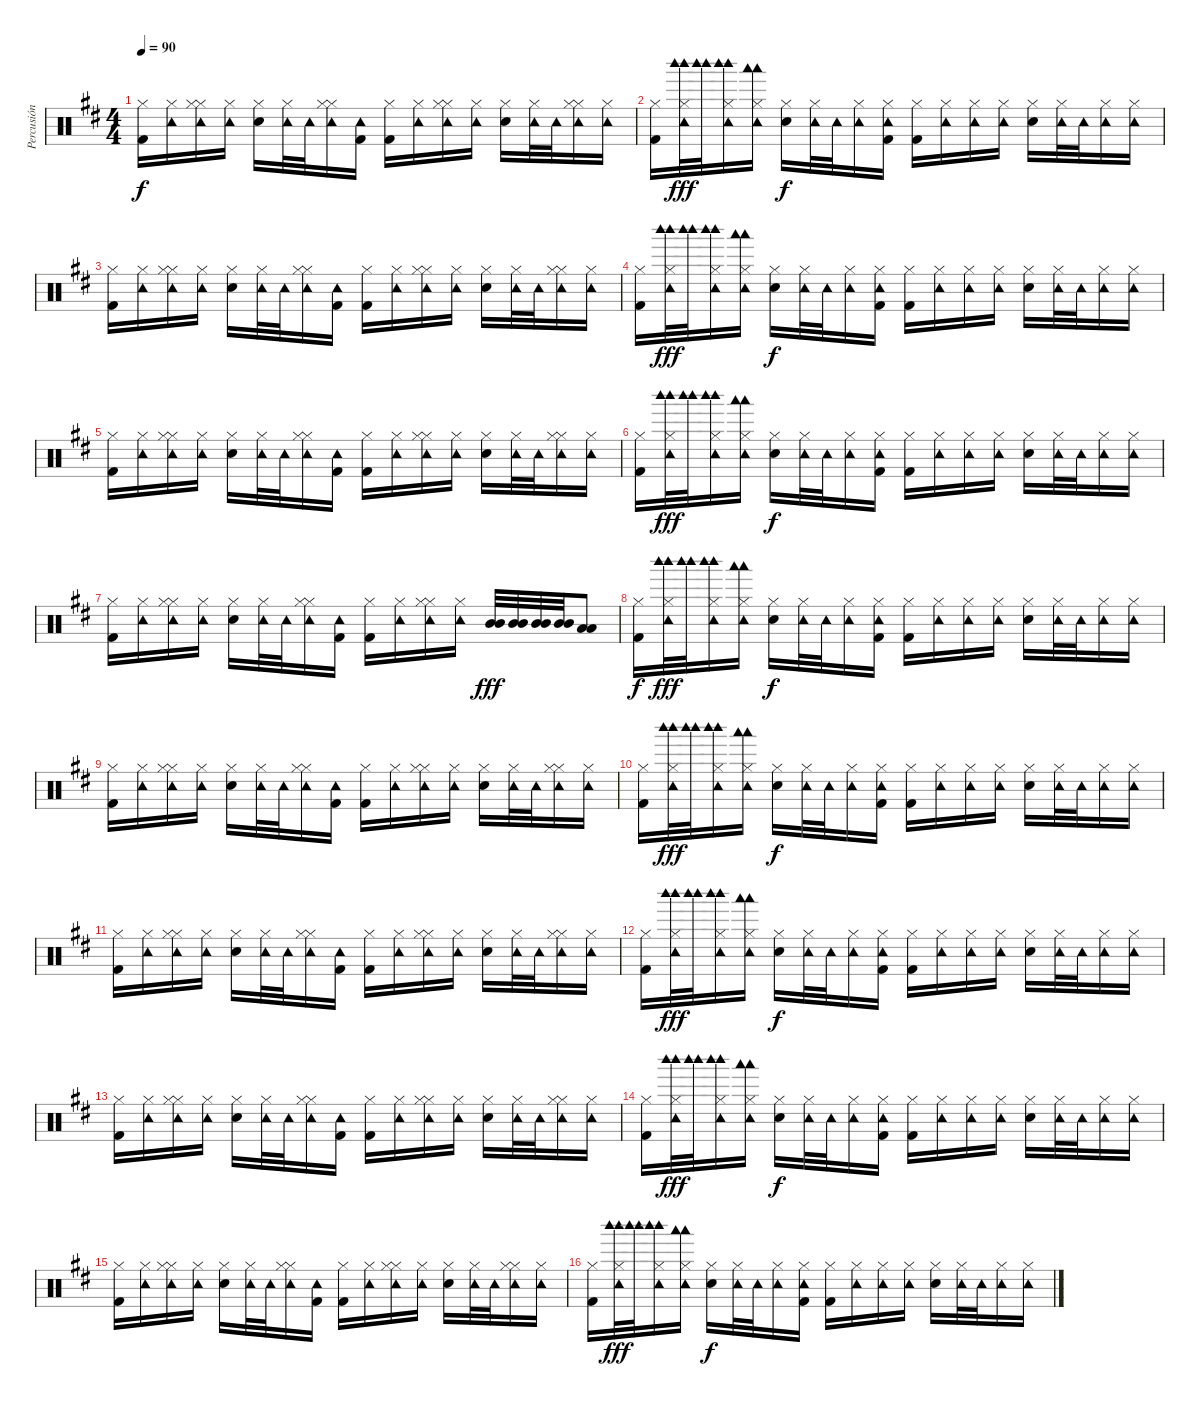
\track ("Percusión" "Percusión") {instrument percussion}
\staff
\articulation defaults
\ts (4 4)
\tempo 90
\clef neutral
\ks bminor
("Kick (hit) 2" "Hi-Hat (closed)").16{dy f} ("Tambourine (hit)" "Hi-Hat (closed)").16 ("Hi-Hat (closed)" "Tambourine (hit)" "Hi-Hat (closed)").16 ("Tambourine (hit)" "Hi-Hat (closed)").16 ("Electric Snare (hit)" "Hi-Hat (closed)").16 ("Tambourine (hit)" "Hi-Hat (closed)").32 "Tambourine (hit)".32 ("Hi-Hat (closed)" "Tambourine (hit)" "Hi-Hat (closed)").16 ("Kick (hit) 2" "Tambourine (hit)").16 ("Kick (hit) 2" "Hi-Hat (closed)").16 ("Tambourine (hit)" "Hi-Hat (closed)").16 ("Hi-Hat (closed)" "Tambourine (hit)" "Hi-Hat (closed)").16 ("Tambourine (hit)" "Hi-Hat (closed)").16 ("Electric Snare (hit)" "Hi-Hat (closed)").16 ("Tambourine (hit)" "Hi-Hat (closed)").32 "Tambourine (hit)".32 ("Hi-Hat (closed)" "Tambourine (hit)" "Hi-Hat (closed)").16 ("Tambourine (hit)" "Hi-Hat (closed)").16 |
("Kick (hit) 2" "Hi-Hat (closed)").16 ("Hi-Hat (closed)" "Tambourine (hit)" "Woodblock high (hit)" "Woodblock high (hit)").32{dy fff} ("Woodblock high (hit)" "Woodblock high (hit)").32 ("Hi-Hat (closed)" "Tambourine (hit)" "Woodblock high (hit)" "Woodblock high (hit)").16 ("Hi-Hat (closed)" "Tambourine (hit)" "Woodblock low (hit)" "Woodblock low (hit)").16 ("Electric Snare (hit)" "Hi-Hat (closed)").16{dy f} ("Hi-Hat (closed)" "Tambourine (hit)").32 "Tambourine (hit)".32 ("Hi-Hat (closed)" "Tambourine (hit)").16 ("Kick (hit) 2" "Hi-Hat (closed)" "Tambourine (hit)").16 ("Kick (hit) 2" "Hi-Hat (closed)").16 ("Hi-Hat (closed)" "Tambourine (hit)").16 ("Hi-Hat (closed)" "Tambourine (hit)").16 ("Hi-Hat (closed)" "Tambourine (hit)").16 ("Electric Snare (hit)" "Hi-Hat (closed)").16 ("Hi-Hat (closed)" "Tambourine (hit)").32 "Tambourine (hit)".32 ("Hi-Hat (closed)" "Tambourine (hit)").16 ("Hi-Hat (closed)" "Tambourine (hit)").16 |
("Kick (hit) 2" "Hi-Hat (closed)").16 ("Tambourine (hit)" "Hi-Hat (closed)").16 ("Hi-Hat (closed)" "Tambourine (hit)" "Hi-Hat (closed)").16 ("Tambourine (hit)" "Hi-Hat (closed)").16 ("Electric Snare (hit)" "Hi-Hat (closed)").16 ("Tambourine (hit)" "Hi-Hat (closed)").32 "Tambourine (hit)".32 ("Hi-Hat (closed)" "Tambourine (hit)" "Hi-Hat (closed)").16 ("Kick (hit) 2" "Tambourine (hit)").16 ("Kick (hit) 2" "Hi-Hat (closed)").16 ("Tambourine (hit)" "Hi-Hat (closed)").16 ("Hi-Hat (closed)" "Tambourine (hit)" "Hi-Hat (closed)").16 ("Tambourine (hit)" "Hi-Hat (closed)").16 ("Electric Snare (hit)" "Hi-Hat (closed)").16 ("Tambourine (hit)" "Hi-Hat (closed)").32 "Tambourine (hit)".32 ("Hi-Hat (closed)" "Tambourine (hit)" "Hi-Hat (closed)").16 ("Tambourine (hit)" "Hi-Hat (closed)").16 |
("Kick (hit) 2" "Hi-Hat (closed)").16 ("Hi-Hat (closed)" "Tambourine (hit)" "Woodblock high (hit)" "Woodblock high (hit)").32{dy fff} ("Woodblock high (hit)" "Woodblock high (hit)").32 ("Hi-Hat (closed)" "Tambourine (hit)" "Woodblock high (hit)" "Woodblock high (hit)").16 ("Hi-Hat (closed)" "Tambourine (hit)" "Woodblock low (hit)" "Woodblock low (hit)").16 ("Electric Snare (hit)" "Hi-Hat (closed)").16{dy f} ("Hi-Hat (closed)" "Tambourine (hit)").32 "Tambourine (hit)".32 ("Hi-Hat (closed)" "Tambourine (hit)").16 ("Kick (hit) 2" "Hi-Hat (closed)" "Tambourine (hit)").16 ("Kick (hit) 2" "Hi-Hat (closed)").16 ("Hi-Hat (closed)" "Tambourine (hit)").16 ("Hi-Hat (closed)" "Tambourine (hit)").16 ("Hi-Hat (closed)" "Tambourine (hit)").16 ("Electric Snare (hit)" "Hi-Hat (closed)").16 ("Hi-Hat (closed)" "Tambourine (hit)").32 "Tambourine (hit)".32 ("Hi-Hat (closed)" "Tambourine (hit)").16 ("Hi-Hat (closed)" "Tambourine (hit)").16 |
("Kick (hit) 2" "Hi-Hat (closed)").16 ("Tambourine (hit)" "Hi-Hat (closed)").16 ("Hi-Hat (closed)" "Tambourine (hit)" "Hi-Hat (closed)").16 ("Tambourine (hit)" "Hi-Hat (closed)").16 ("Electric Snare (hit)" "Hi-Hat (closed)").16 ("Tambourine (hit)" "Hi-Hat (closed)").32 "Tambourine (hit)".32 ("Hi-Hat (closed)" "Tambourine (hit)" "Hi-Hat (closed)").16 ("Kick (hit) 2" "Tambourine (hit)").16 ("Kick (hit) 2" "Hi-Hat (closed)").16 ("Tambourine (hit)" "Hi-Hat (closed)").16 ("Hi-Hat (closed)" "Tambourine (hit)" "Hi-Hat (closed)").16 ("Tambourine (hit)" "Hi-Hat (closed)").16 ("Electric Snare (hit)" "Hi-Hat (closed)").16 ("Tambourine (hit)" "Hi-Hat (closed)").32 "Tambourine (hit)".32 ("Hi-Hat (closed)" "Tambourine (hit)" "Hi-Hat (closed)").16 ("Tambourine (hit)" "Hi-Hat (closed)").16 |
("Kick (hit) 2" "Hi-Hat (closed)").16 ("Hi-Hat (closed)" "Tambourine (hit)" "Woodblock high (hit)" "Woodblock high (hit)").32{dy fff} ("Woodblock high (hit)" "Woodblock high (hit)").32 ("Hi-Hat (closed)" "Tambourine (hit)" "Woodblock high (hit)" "Woodblock high (hit)").16 ("Hi-Hat (closed)" "Tambourine (hit)" "Woodblock low (hit)" "Woodblock low (hit)").16 ("Electric Snare (hit)" "Hi-Hat (closed)").16{dy f} ("Hi-Hat (closed)" "Tambourine (hit)").32 "Tambourine (hit)".32 ("Hi-Hat (closed)" "Tambourine (hit)").16 ("Kick (hit) 2" "Hi-Hat (closed)" "Tambourine (hit)").16 ("Kick (hit) 2" "Hi-Hat (closed)").16 ("Hi-Hat (closed)" "Tambourine (hit)").16 ("Hi-Hat (closed)" "Tambourine (hit)").16 ("Hi-Hat (closed)" "Tambourine (hit)").16 ("Electric Snare (hit)" "Hi-Hat (closed)").16 ("Hi-Hat (closed)" "Tambourine (hit)").32 "Tambourine (hit)".32 ("Hi-Hat (closed)" "Tambourine (hit)").16 ("Hi-Hat (closed)" "Tambourine (hit)").16 |
("Kick (hit) 2" "Hi-Hat (closed)").16 ("Tambourine (hit)" "Hi-Hat (closed)").16 ("Hi-Hat (closed)" "Tambourine (hit)" "Hi-Hat (closed)").16 ("Tambourine (hit)" "Hi-Hat (closed)").16 ("Electric Snare (hit)" "Hi-Hat (closed)").16 ("Tambourine (hit)" "Hi-Hat (closed)").32 "Tambourine (hit)".32 ("Hi-Hat (closed)" "Tambourine (hit)" "Hi-Hat (closed)").16 ("Kick (hit) 2" "Tambourine (hit)").16 ("Kick (hit) 2" "Hi-Hat (closed)").16 ("Tambourine (hit)" "Hi-Hat (closed)").16 ("Hi-Hat (closed)" "Tambourine (hit)" "Hi-Hat (closed)").16 ("Tambourine (hit)" "Hi-Hat (closed)").16 ("Mid Tom (hit)" "Mid Tom (hit)").32{dy fff} ("Mid Tom (hit)" "Mid Tom (hit)").32 ("Mid Tom (hit)" "Mid Tom (hit)").32 ("Mid Tom (hit)" "Mid Tom (hit)").32 ("Low Tom (hit)" "Low Tom (hit)").8 |
("Kick (hit) 2" "Hi-Hat (closed)").16{dy f} ("Hi-Hat (closed)" "Tambourine (hit)" "Woodblock high (hit)" "Woodblock high (hit)").32{dy fff} ("Woodblock high (hit)" "Woodblock high (hit)").32 ("Hi-Hat (closed)" "Tambourine (hit)" "Woodblock high (hit)" "Woodblock high (hit)").16 ("Hi-Hat (closed)" "Tambourine (hit)" "Woodblock low (hit)" "Woodblock low (hit)").16 ("Electric Snare (hit)" "Hi-Hat (closed)").16{dy f} ("Hi-Hat (closed)" "Tambourine (hit)").32 "Tambourine (hit)".32 ("Hi-Hat (closed)" "Tambourine (hit)").16 ("Kick (hit) 2" "Hi-Hat (closed)" "Tambourine (hit)").16 ("Kick (hit) 2" "Hi-Hat (closed)").16 ("Hi-Hat (closed)" "Tambourine (hit)").16 ("Hi-Hat (closed)" "Tambourine (hit)").16 ("Hi-Hat (closed)" "Tambourine (hit)").16 ("Electric Snare (hit)" "Hi-Hat (closed)").16 ("Hi-Hat (closed)" "Tambourine (hit)").32 "Tambourine (hit)".32 ("Hi-Hat (closed)" "Tambourine (hit)").16 ("Hi-Hat (closed)" "Tambourine (hit)").16 |
("Kick (hit) 2" "Hi-Hat (closed)").16 ("Tambourine (hit)" "Hi-Hat (closed)").16 ("Hi-Hat (closed)" "Tambourine (hit)" "Hi-Hat (closed)").16 ("Tambourine (hit)" "Hi-Hat (closed)").16 ("Electric Snare (hit)" "Hi-Hat (closed)").16 ("Tambourine (hit)" "Hi-Hat (closed)").32 "Tambourine (hit)".32 ("Hi-Hat (closed)" "Tambourine (hit)" "Hi-Hat (closed)").16 ("Kick (hit) 2" "Tambourine (hit)").16 ("Kick (hit) 2" "Hi-Hat (closed)").16 ("Tambourine (hit)" "Hi-Hat (closed)").16 ("Hi-Hat (closed)" "Tambourine (hit)" "Hi-Hat (closed)").16 ("Tambourine (hit)" "Hi-Hat (closed)").16 ("Electric Snare (hit)" "Hi-Hat (closed)").16 ("Tambourine (hit)" "Hi-Hat (closed)").32 "Tambourine (hit)".32 ("Hi-Hat (closed)" "Tambourine (hit)" "Hi-Hat (closed)").16 ("Tambourine (hit)" "Hi-Hat (closed)").16 |
("Kick (hit) 2" "Hi-Hat (closed)").16 ("Hi-Hat (closed)" "Tambourine (hit)" "Woodblock high (hit)" "Woodblock high (hit)").32{dy fff} ("Woodblock high (hit)" "Woodblock high (hit)").32 ("Hi-Hat (closed)" "Tambourine (hit)" "Woodblock high (hit)" "Woodblock high (hit)").16 ("Hi-Hat (closed)" "Tambourine (hit)" "Woodblock low (hit)" "Woodblock low (hit)").16 ("Electric Snare (hit)" "Hi-Hat (closed)").16{dy f} ("Hi-Hat (closed)" "Tambourine (hit)").32 "Tambourine (hit)".32 ("Hi-Hat (closed)" "Tambourine (hit)").16 ("Kick (hit) 2" "Hi-Hat (closed)" "Tambourine (hit)").16 ("Kick (hit) 2" "Hi-Hat (closed)").16 ("Hi-Hat (closed)" "Tambourine (hit)").16 ("Hi-Hat (closed)" "Tambourine (hit)").16 ("Hi-Hat (closed)" "Tambourine (hit)").16 ("Electric Snare (hit)" "Hi-Hat (closed)").16 ("Hi-Hat (closed)" "Tambourine (hit)").32 "Tambourine (hit)".32 ("Hi-Hat (closed)" "Tambourine (hit)").16 ("Hi-Hat (closed)" "Tambourine (hit)").16 |
("Kick (hit) 2" "Hi-Hat (closed)").16 ("Tambourine (hit)" "Hi-Hat (closed)").16 ("Hi-Hat (closed)" "Tambourine (hit)" "Hi-Hat (closed)").16 ("Tambourine (hit)" "Hi-Hat (closed)").16 ("Electric Snare (hit)" "Hi-Hat (closed)").16 ("Tambourine (hit)" "Hi-Hat (closed)").32 "Tambourine (hit)".32 ("Hi-Hat (closed)" "Tambourine (hit)" "Hi-Hat (closed)").16 ("Kick (hit) 2" "Tambourine (hit)").16 ("Kick (hit) 2" "Hi-Hat (closed)").16 ("Tambourine (hit)" "Hi-Hat (closed)").16 ("Hi-Hat (closed)" "Tambourine (hit)" "Hi-Hat (closed)").16 ("Tambourine (hit)" "Hi-Hat (closed)").16 ("Electric Snare (hit)" "Hi-Hat (closed)").16 ("Tambourine (hit)" "Hi-Hat (closed)").32 "Tambourine (hit)".32 ("Hi-Hat (closed)" "Tambourine (hit)" "Hi-Hat (closed)").16 ("Tambourine (hit)" "Hi-Hat (closed)").16 |
("Kick (hit) 2" "Hi-Hat (closed)").16 ("Hi-Hat (closed)" "Tambourine (hit)" "Woodblock high (hit)" "Woodblock high (hit)").32{dy fff} ("Woodblock high (hit)" "Woodblock high (hit)").32 ("Hi-Hat (closed)" "Tambourine (hit)" "Woodblock high (hit)" "Woodblock high (hit)").16 ("Hi-Hat (closed)" "Tambourine (hit)" "Woodblock low (hit)" "Woodblock low (hit)").16 ("Electric Snare (hit)" "Hi-Hat (closed)").16{dy f} ("Hi-Hat (closed)" "Tambourine (hit)").32 "Tambourine (hit)".32 ("Hi-Hat (closed)" "Tambourine (hit)").16 ("Kick (hit) 2" "Hi-Hat (closed)" "Tambourine (hit)").16 ("Kick (hit) 2" "Hi-Hat (closed)").16 ("Hi-Hat (closed)" "Tambourine (hit)").16 ("Hi-Hat (closed)" "Tambourine (hit)").16 ("Hi-Hat (closed)" "Tambourine (hit)").16 ("Electric Snare (hit)" "Hi-Hat (closed)").16 ("Hi-Hat (closed)" "Tambourine (hit)").32 "Tambourine (hit)".32 ("Hi-Hat (closed)" "Tambourine (hit)").16 ("Hi-Hat (closed)" "Tambourine (hit)").16 |
("Kick (hit) 2" "Hi-Hat (closed)").16 ("Tambourine (hit)" "Hi-Hat (closed)").16 ("Hi-Hat (closed)" "Tambourine (hit)" "Hi-Hat (closed)").16 ("Tambourine (hit)" "Hi-Hat (closed)").16 ("Electric Snare (hit)" "Hi-Hat (closed)").16 ("Tambourine (hit)" "Hi-Hat (closed)").32 "Tambourine (hit)".32 ("Hi-Hat (closed)" "Tambourine (hit)" "Hi-Hat (closed)").16 ("Kick (hit) 2" "Tambourine (hit)").16 ("Kick (hit) 2" "Hi-Hat (closed)").16 ("Tambourine (hit)" "Hi-Hat (closed)").16 ("Hi-Hat (closed)" "Tambourine (hit)" "Hi-Hat (closed)").16 ("Tambourine (hit)" "Hi-Hat (closed)").16 ("Electric Snare (hit)" "Hi-Hat (closed)").16 ("Tambourine (hit)" "Hi-Hat (closed)").32 "Tambourine (hit)".32 ("Hi-Hat (closed)" "Tambourine (hit)" "Hi-Hat (closed)").16 ("Tambourine (hit)" "Hi-Hat (closed)").16 |
("Kick (hit) 2" "Hi-Hat (closed)").16 ("Hi-Hat (closed)" "Tambourine (hit)" "Woodblock high (hit)" "Woodblock high (hit)").32{dy fff} ("Woodblock high (hit)" "Woodblock high (hit)").32 ("Hi-Hat (closed)" "Tambourine (hit)" "Woodblock high (hit)" "Woodblock high (hit)").16 ("Hi-Hat (closed)" "Tambourine (hit)" "Woodblock low (hit)" "Woodblock low (hit)").16 ("Electric Snare (hit)" "Hi-Hat (closed)").16{dy f} ("Hi-Hat (closed)" "Tambourine (hit)").32 "Tambourine (hit)".32 ("Hi-Hat (closed)" "Tambourine (hit)").16 ("Kick (hit) 2" "Hi-Hat (closed)" "Tambourine (hit)").16 ("Kick (hit) 2" "Hi-Hat (closed)").16 ("Hi-Hat (closed)" "Tambourine (hit)").16 ("Hi-Hat (closed)" "Tambourine (hit)").16 ("Hi-Hat (closed)" "Tambourine (hit)").16 ("Electric Snare (hit)" "Hi-Hat (closed)").16 ("Hi-Hat (closed)" "Tambourine (hit)").32 "Tambourine (hit)".32 ("Hi-Hat (closed)" "Tambourine (hit)").16 ("Hi-Hat (closed)" "Tambourine (hit)").16 |
("Kick (hit) 2" "Hi-Hat (closed)").16 ("Tambourine (hit)" "Hi-Hat (closed)").16 ("Hi-Hat (closed)" "Tambourine (hit)" "Hi-Hat (closed)").16 ("Tambourine (hit)" "Hi-Hat (closed)").16 ("Electric Snare (hit)" "Hi-Hat (closed)").16 ("Tambourine (hit)" "Hi-Hat (closed)").32 "Tambourine (hit)".32 ("Hi-Hat (closed)" "Tambourine (hit)" "Hi-Hat (closed)").16 ("Kick (hit) 2" "Tambourine (hit)").16 ("Kick (hit) 2" "Hi-Hat (closed)").16 ("Tambourine (hit)" "Hi-Hat (closed)").16 ("Hi-Hat (closed)" "Tambourine (hit)" "Hi-Hat (closed)").16 ("Tambourine (hit)" "Hi-Hat (closed)").16 ("Electric Snare (hit)" "Hi-Hat (closed)").16 ("Tambourine (hit)" "Hi-Hat (closed)").32 "Tambourine (hit)".32 ("Hi-Hat (closed)" "Tambourine (hit)" "Hi-Hat (closed)").16 ("Tambourine (hit)" "Hi-Hat (closed)").16 |
("Kick (hit) 2" "Hi-Hat (closed)").16 ("Hi-Hat (closed)" "Tambourine (hit)" "Woodblock high (hit)" "Woodblock high (hit)").32{dy fff} ("Woodblock high (hit)" "Woodblock high (hit)").32 ("Hi-Hat (closed)" "Tambourine (hit)" "Woodblock high (hit)" "Woodblock high (hit)").16 ("Hi-Hat (closed)" "Tambourine (hit)" "Woodblock low (hit)" "Woodblock low (hit)").16 ("Electric Snare (hit)" "Hi-Hat (closed)").16{dy f} ("Hi-Hat (closed)" "Tambourine (hit)").32 "Tambourine (hit)".32 ("Hi-Hat (closed)" "Tambourine (hit)").16 ("Kick (hit) 2" "Hi-Hat (closed)" "Tambourine (hit)").16 ("Kick (hit) 2" "Hi-Hat (closed)").16 ("Hi-Hat (closed)" "Tambourine (hit)").16 ("Hi-Hat (closed)" "Tambourine (hit)").16 ("Hi-Hat (closed)" "Tambourine (hit)").16 ("Electric Snare (hit)" "Hi-Hat (closed)").16 ("Hi-Hat (closed)" "Tambourine (hit)").32 "Tambourine (hit)".32 ("Hi-Hat (closed)" "Tambourine (hit)").16 ("Hi-Hat (closed)" "Tambourine (hit)").16
